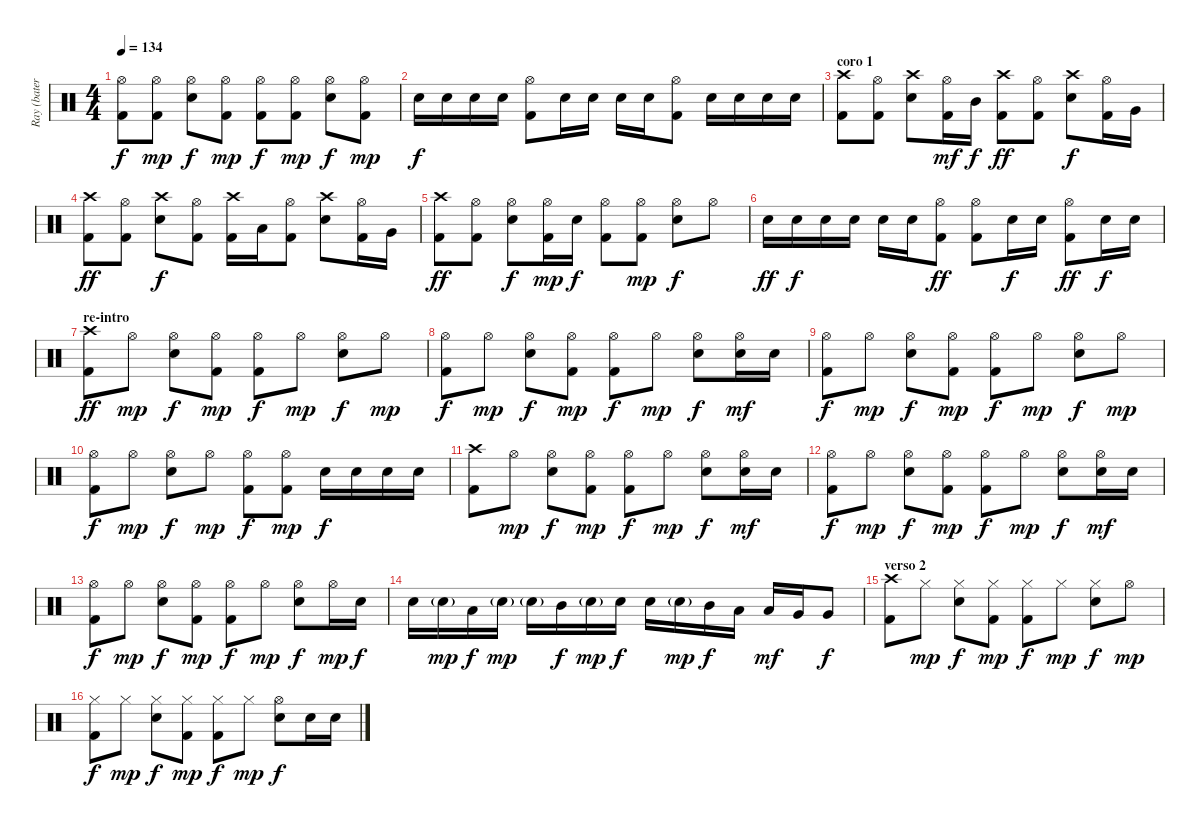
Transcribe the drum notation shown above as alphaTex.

\track ("Ray (batería)" "Ray (bater") {instrument percussion}
\staff {score}
\articulation defaults
\ts (4 4)
\tempo 134
\clef neutral
\ks c
("Hi-Hat (open)" "Kick (hit) 2").8{dy f} ("Hi-Hat (open)" "Kick (hit) 2").8{dy mp} ("Hi-Hat (open)" "Snare (hit) 2").8{dy f} ("Hi-Hat (open)" "Kick (hit) 2").8{dy mp} ("Hi-Hat (open)" "Kick (hit) 2").8{dy f} ("Hi-Hat (open)" "Kick (hit) 2").8{dy mp} ("Hi-Hat (open)" "Snare (hit) 2").8{dy f} ("Hi-Hat (open)" "Kick (hit) 2").8{dy mp} |
"Snare (hit) 2".16{dy f} "Snare (hit) 2".16 "Snare (hit) 2".16 "Snare (hit) 2".16 ("Hi-Hat (open)" "Kick (hit) 2").8 "Snare (hit) 2".16 "Snare (hit) 2".16 "Snare (hit) 2".16 "Snare (hit) 2".16 ("Hi-Hat (open)" "Kick (hit) 2").8 "Snare (hit) 2".16 "Snare (hit) 2".16 "Snare (hit) 2".16 "Snare (hit) 2".16 |
\section ("" "coro 1")
("Crash high (hit)" "Kick (hit) 2").8 ("Hi-Hat (open)" "Kick (hit) 2").8 ("Crash high (hit)" "Snare (hit) 2").8 ("Hi-Hat (open)" "Kick (hit) 2").16{dy mf} "Mid Tom (hit)".16{dy f} ("Crash high (hit)" "Kick (hit) 2").8{dy ff} ("Hi-Hat (open)" "Kick (hit) 2").8 ("Crash high (hit)" "Snare (hit) 2").8{dy f} ("Hi-Hat (open)" "Kick (hit) 2").16 "Very Low Tom (hit)".16 |
("Crash high (hit)" "Kick (hit) 2").8{dy ff} ("Hi-Hat (open)" "Kick (hit) 2").8 ("Crash high (hit)" "Snare (hit) 2").8{dy f} ("Hi-Hat (open)" "Kick (hit) 2").8 ("Crash high (hit)" "Kick (hit) 2").16 "Low Tom (hit)".16 ("Hi-Hat (open)" "Kick (hit) 2").8 ("Crash high (hit)" "Snare (hit) 2").8 ("Hi-Hat (open)" "Kick (hit) 2").16 "Very Low Tom (hit)".16 |
("Crash high (hit)" "Kick (hit) 2").8{dy ff} ("Hi-Hat (open)" "Kick (hit) 2").8 ("Hi-Hat (open)" "Snare (hit) 2").8{dy f} ("Hi-Hat (open)" "Kick (hit) 2").16{dy mp} "Snare (hit) 2".16{dy f} ("Hi-Hat (open)" "Kick (hit) 2").8 ("Hi-Hat (open)" "Kick (hit) 2").8{dy mp} ("Hi-Hat (open)" "Snare (hit) 2").8{dy f} "Hi-Hat (open)".8 |
"Snare (hit) 2".16{dy ff} "Snare (hit) 2".16{dy f} "Snare (hit) 2".16 "Snare (hit) 2".16 "Snare (hit) 2".16 "Snare (hit) 2".16 ("Hi-Hat (open)" "Kick (hit) 2").8{dy ff} ("Hi-Hat (open)" "Kick (hit) 2").8 "Snare (hit) 2".16{dy f} "Snare (hit) 2".16 ("Hi-Hat (open)" "Kick (hit) 2").8{dy ff} "Snare (hit) 2".16{dy f} "Snare (hit) 2".16 |
\section ("" "re-intro")
("Crash high (hit)" "Kick (hit) 2").8{dy ff} "Hi-Hat (open)".8{dy mp} ("Hi-Hat (open)" "Snare (hit) 2").8{dy f} ("Hi-Hat (open)" "Kick (hit) 2").8{dy mp} ("Hi-Hat (open)" "Kick (hit) 2").8{dy f} "Hi-Hat (open)".8{dy mp} ("Hi-Hat (open)" "Snare (hit) 2").8{dy f} "Hi-Hat (open)".8{dy mp} |
("Hi-Hat (open)" "Kick (hit) 2").8{dy f} "Hi-Hat (open)".8{dy mp} ("Hi-Hat (open)" "Snare (hit) 2").8{dy f} ("Hi-Hat (open)" "Kick (hit) 2").8{dy mp} ("Hi-Hat (open)" "Kick (hit) 2").8{dy f} "Hi-Hat (open)".8{dy mp} ("Hi-Hat (open)" "Snare (hit) 2").8{dy f} ("Hi-Hat (open)" "Snare (hit) 2").16{dy mf} "Snare (hit) 2".16 |
("Hi-Hat (open)" "Kick (hit) 2").8{dy f} "Hi-Hat (open)".8{dy mp} ("Hi-Hat (open)" "Snare (hit) 2").8{dy f} ("Hi-Hat (open)" "Kick (hit) 2").8{dy mp} ("Hi-Hat (open)" "Kick (hit) 2").8{dy f} "Hi-Hat (open)".8{dy mp} ("Hi-Hat (open)" "Snare (hit) 2").8{dy f} "Hi-Hat (open)".8{dy mp} |
("Hi-Hat (open)" "Kick (hit) 2").8{dy f} "Hi-Hat (open)".8{dy mp} ("Hi-Hat (open)" "Snare (hit) 2").8{dy f} "Hi-Hat (open)".8{dy mp} ("Hi-Hat (open)" "Kick (hit) 2").8{dy f} ("Hi-Hat (open)" "Kick (hit) 2").8{dy mp} "Snare (hit) 2".16{dy f} "Snare (hit) 2".16 "Snare (hit) 2".16 "Snare (hit) 2".16 |
("Crash high (hit)" "Kick (hit) 2").8 "Hi-Hat (open)".8{dy mp} ("Hi-Hat (open)" "Snare (hit) 2").8{dy f} ("Hi-Hat (open)" "Kick (hit) 2").8{dy mp} ("Hi-Hat (open)" "Kick (hit) 2").8{dy f} "Hi-Hat (open)".8{dy mp} ("Hi-Hat (open)" "Snare (hit) 2").8{dy f} ("Hi-Hat (open)" "Snare (hit) 2").16{dy mf} "Snare (hit) 2".16 |
("Hi-Hat (open)" "Kick (hit) 2").8{dy f} "Hi-Hat (open)".8{dy mp} ("Hi-Hat (open)" "Snare (hit) 2").8{dy f} ("Hi-Hat (open)" "Kick (hit) 2").8{dy mp} ("Hi-Hat (open)" "Kick (hit) 2").8{dy f} "Hi-Hat (open)".8{dy mp} ("Hi-Hat (open)" "Snare (hit) 2").8{dy f} ("Hi-Hat (open)" "Snare (hit) 2").16{dy mf} "Snare (hit) 2".16 |
("Hi-Hat (open)" "Kick (hit) 2").8{dy f} "Hi-Hat (open)".8{dy mp} ("Hi-Hat (open)" "Snare (hit) 2").8{dy f} ("Hi-Hat (open)" "Kick (hit) 2").8{dy mp} ("Hi-Hat (open)" "Kick (hit) 2").8{dy f} "Hi-Hat (open)".8{dy mp} ("Hi-Hat (open)" "Snare (hit) 2").8{dy f} "Hi-Hat (open)".16{dy mp} "Snare (hit) 2".16{dy f} |
"Snare (hit) 2".16 "Snare (hit) 2"{g}.16{dy mp} "Low Tom (hit)".16{dy f} "Snare (hit) 2"{g}.16{dy mp} "Snare (hit) 2"{g}.16 "Mid Tom (hit)".16{dy f} "Snare (hit) 2"{g}.16{dy mp} "Snare (hit) 2".16{dy f} "Snare (hit) 2".16 "Snare (hit) 2"{g}.16{dy mp} "Mid Tom (hit)".16{dy f} "Low Tom (hit)".16 "Low Tom (hit)".16{dy mf} "Very Low Tom (hit)".16 "Very Low Tom (hit)".8{dy f} |
\section ("" "verso 2")
("Crash high (hit)" "Kick (hit) 2").8 "Hi-Hat (closed)".8{dy mp} ("Hi-Hat (closed)" "Snare (hit) 2").8{dy f} ("Hi-Hat (closed)" "Kick (hit) 2").8{dy mp} ("Hi-Hat (closed)" "Kick (hit) 2").8{dy f} "Hi-Hat (closed)".8{dy mp} ("Hi-Hat (closed)" "Snare (hit) 2").8{dy f} "Hi-Hat (open)".8{dy mp} |
("Hi-Hat (closed)" "Kick (hit) 2").8{dy f} "Hi-Hat (closed)".8{dy mp} ("Hi-Hat (closed)" "Snare (hit) 2").8{dy f} ("Hi-Hat (closed)" "Kick (hit) 2").8{dy mp} ("Hi-Hat (closed)" "Kick (hit) 2").8{dy f} "Hi-Hat (closed)".8{dy mp} ("Hi-Hat (open)" "Snare (hit) 2").8{dy f} "Snare (hit) 2".16 "Snare (hit) 2".16
